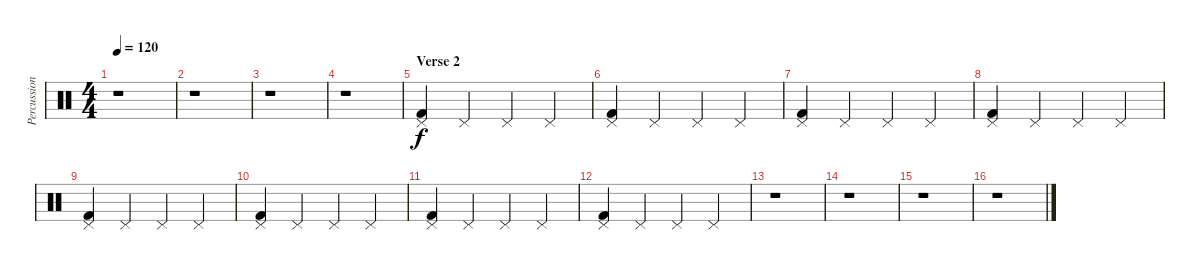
\track ("Percussions" "Percussion") {instrument percussion}
\staff {score}
\articulation defaults
\ts (4 4)
\tempo 120
\clef neutral
\ks c
r.1{dy f} |
r.1 |
r.1 |
r.1 |
\section ("" "Verse 2")
("Pedal Hi-Hat (hit)" "Kick (hit) 2").4 "Pedal Hi-Hat (hit)".4 "Pedal Hi-Hat (hit)".4 "Pedal Hi-Hat (hit)".4 |
("Pedal Hi-Hat (hit)" "Kick (hit) 2").4 "Pedal Hi-Hat (hit)".4 "Pedal Hi-Hat (hit)".4 "Pedal Hi-Hat (hit)".4 |
("Pedal Hi-Hat (hit)" "Kick (hit) 2").4 "Pedal Hi-Hat (hit)".4 "Pedal Hi-Hat (hit)".4 "Pedal Hi-Hat (hit)".4 |
("Pedal Hi-Hat (hit)" "Kick (hit) 2").4 "Pedal Hi-Hat (hit)".4 "Pedal Hi-Hat (hit)".4 "Pedal Hi-Hat (hit)".4 |
("Pedal Hi-Hat (hit)" "Kick (hit) 2").4 "Pedal Hi-Hat (hit)".4 "Pedal Hi-Hat (hit)".4 "Pedal Hi-Hat (hit)".4 |
("Pedal Hi-Hat (hit)" "Kick (hit) 2").4 "Pedal Hi-Hat (hit)".4 "Pedal Hi-Hat (hit)".4 "Pedal Hi-Hat (hit)".4 |
("Pedal Hi-Hat (hit)" "Kick (hit) 2").4 "Pedal Hi-Hat (hit)".4 "Pedal Hi-Hat (hit)".4 "Pedal Hi-Hat (hit)".4 |
("Pedal Hi-Hat (hit)" "Kick (hit) 2").4 "Pedal Hi-Hat (hit)".4 "Pedal Hi-Hat (hit)".4 "Pedal Hi-Hat (hit)".4 |
r.1 |
r.1 |
r.1 |
r.1
